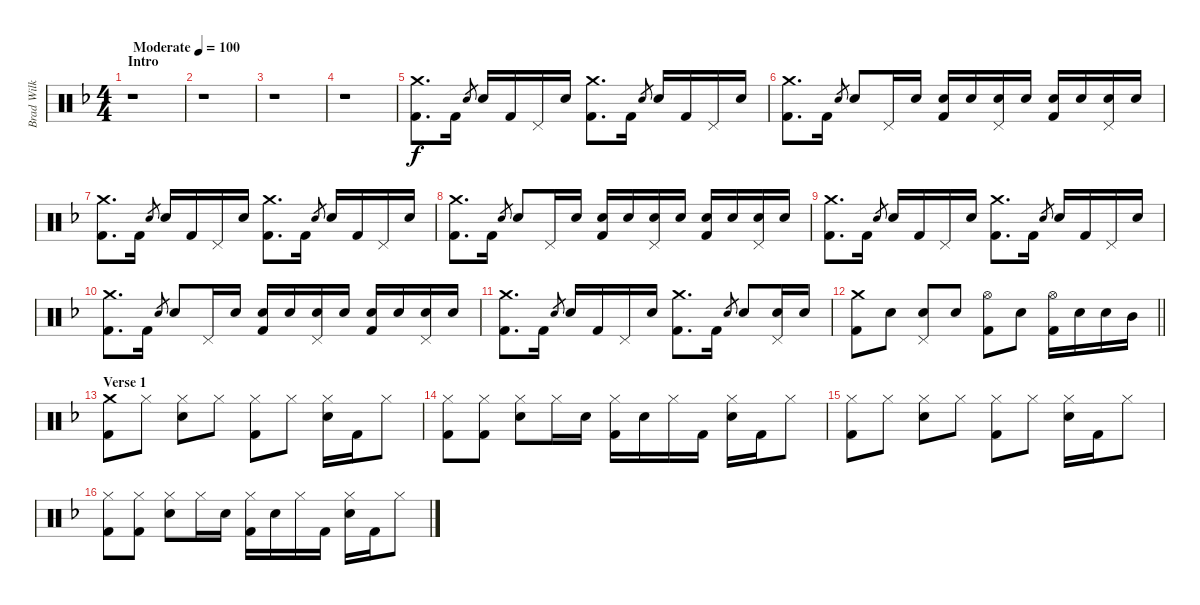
\track ("Brad Wilk" "Brad Wilk") {instrument percussion}
\staff {score}
\articulation defaults
\ts (4 4)
\section ("" "Intro")
\tempo (100 "Moderate")
\clef neutral
\ks f
r.1{dy f} |
r.1 |
r.1 |
r.1 |
("Crash medium (hit)" "Kick (hit) 2").8{d} "Kick (hit) 2".16 "Electric Snare (hit)".8{gr} "Electric Snare (hit)".16 "Kick (hit) 2".16 "Pedal Hi-Hat (hit)".16 "Electric Snare (hit)".16 ("Crash medium (hit)" "Kick (hit) 2").8{d} "Kick (hit) 2".16 "Electric Snare (hit)".8{gr} "Electric Snare (hit)".16 "Kick (hit) 2".16 "Pedal Hi-Hat (hit)".16 "Electric Snare (hit)".16 |
("Crash medium (hit)" "Kick (hit) 2").8{d} "Kick (hit) 2".16 "Electric Snare (hit)".8{gr} "Electric Snare (hit)".8 "Pedal Hi-Hat (hit)".16 "Electric Snare (hit)".16 ("Electric Snare (hit)" "Kick (hit) 2").16 "Electric Snare (hit)".16 ("Pedal Hi-Hat (hit)" "Electric Snare (hit)").16 "Electric Snare (hit)".16 ("Electric Snare (hit)" "Kick (hit) 2").16 "Electric Snare (hit)".16 ("Pedal Hi-Hat (hit)" "Electric Snare (hit)").16 "Electric Snare (hit)".16 |
("Crash medium (hit)" "Kick (hit) 2").8{d} "Kick (hit) 2".16 "Electric Snare (hit)".8{gr} "Electric Snare (hit)".16 "Kick (hit) 2".16 "Pedal Hi-Hat (hit)".16 "Electric Snare (hit)".16 ("Crash medium (hit)" "Kick (hit) 2").8{d} "Kick (hit) 2".16 "Electric Snare (hit)".8{gr} "Electric Snare (hit)".16 "Kick (hit) 2".16 "Pedal Hi-Hat (hit)".16 "Electric Snare (hit)".16 |
("Crash medium (hit)" "Kick (hit) 2").8{d} "Kick (hit) 2".16 "Electric Snare (hit)".8{gr} "Electric Snare (hit)".8 "Pedal Hi-Hat (hit)".16 "Electric Snare (hit)".16 ("Electric Snare (hit)" "Kick (hit) 2").16 "Electric Snare (hit)".16 ("Pedal Hi-Hat (hit)" "Electric Snare (hit)").16 "Electric Snare (hit)".16 ("Electric Snare (hit)" "Kick (hit) 2").16 "Electric Snare (hit)".16 ("Pedal Hi-Hat (hit)" "Electric Snare (hit)").16 "Electric Snare (hit)".16 |
("Crash medium (hit)" "Kick (hit) 2").8{d} "Kick (hit) 2".16 "Electric Snare (hit)".8{gr} "Electric Snare (hit)".16 "Kick (hit) 2".16 "Pedal Hi-Hat (hit)".16 "Electric Snare (hit)".16 ("Crash medium (hit)" "Kick (hit) 2").8{d} "Kick (hit) 2".16 "Electric Snare (hit)".8{gr} "Electric Snare (hit)".16 "Kick (hit) 2".16 "Pedal Hi-Hat (hit)".16 "Electric Snare (hit)".16 |
("Crash medium (hit)" "Kick (hit) 2").8{d} "Kick (hit) 2".16 "Electric Snare (hit)".8{gr} "Electric Snare (hit)".8 "Pedal Hi-Hat (hit)".16 "Electric Snare (hit)".16 ("Electric Snare (hit)" "Kick (hit) 2").16 "Electric Snare (hit)".16 ("Pedal Hi-Hat (hit)" "Electric Snare (hit)").16 "Electric Snare (hit)".16 ("Electric Snare (hit)" "Kick (hit) 2").16 "Electric Snare (hit)".16 ("Pedal Hi-Hat (hit)" "Electric Snare (hit)").16 "Electric Snare (hit)".16 |
("Crash medium (hit)" "Kick (hit) 2").8{d} "Kick (hit) 2".16 "Electric Snare (hit)".8{gr} "Electric Snare (hit)".16 "Kick (hit) 2".16 "Pedal Hi-Hat (hit)".16 "Electric Snare (hit)".16 ("Crash medium (hit)" "Kick (hit) 2").8{d} "Kick (hit) 2".16 "Electric Snare (hit)".8{gr} "Electric Snare (hit)".8 ("Pedal Hi-Hat (hit)" "Electric Snare (hit)").16 "Electric Snare (hit)".16 |
\barLineRight lightlight
("Crash medium (hit)" "Kick (hit) 2").8 "Electric Snare (hit)".8 ("Pedal Hi-Hat (hit)" "Electric Snare (hit)").8 "Electric Snare (hit)".8 ("Hi-Hat (open)" "Kick (hit) 2").8 "Electric Snare (hit)".8 ("Hi-Hat (open)" "Kick (hit) 2").16 "Electric Snare (hit)".16 "Electric Snare (hit)".16 "Mid Tom (hit)".16 |
\section ("" "Verse 1")
("Crash medium (hit)" "Kick (hit) 2").8 "Hi-Hat (closed)".8 ("Hi-Hat (closed)" "Electric Snare (hit)").8 "Hi-Hat (closed)".8 ("Hi-Hat (closed)" "Kick (hit) 2").8 "Hi-Hat (closed)".8 ("Hi-Hat (closed)" "Electric Snare (hit)").16 "Kick (hit) 2".16 "Hi-Hat (closed)".8 |
("Hi-Hat (closed)" "Kick (hit) 2").8 ("Hi-Hat (closed)" "Kick (hit) 2").8 ("Hi-Hat (closed)" "Electric Snare (hit)").8 "Hi-Hat (closed)".16 "Electric Snare (hit)".16 ("Hi-Hat (closed)" "Kick (hit) 2").16 "Electric Snare (hit)".16 "Hi-Hat (closed)".16 "Kick (hit) 2".16 ("Hi-Hat (closed)" "Electric Snare (hit)").16 "Kick (hit) 2".16 "Hi-Hat (closed)".8 |
("Hi-Hat (closed)" "Kick (hit) 2").8 "Hi-Hat (closed)".8 ("Hi-Hat (closed)" "Electric Snare (hit)").8 "Hi-Hat (closed)".8 ("Hi-Hat (closed)" "Kick (hit) 2").8 "Hi-Hat (closed)".8 ("Hi-Hat (closed)" "Electric Snare (hit)").16 "Kick (hit) 2".16 "Hi-Hat (closed)".8 |
("Hi-Hat (closed)" "Kick (hit) 2").8 ("Hi-Hat (closed)" "Kick (hit) 2").8 ("Hi-Hat (closed)" "Electric Snare (hit)").8 "Hi-Hat (closed)".16 "Electric Snare (hit)".16 ("Hi-Hat (closed)" "Kick (hit) 2").16 "Electric Snare (hit)".16 "Hi-Hat (closed)".16 "Kick (hit) 2".16 ("Hi-Hat (closed)" "Electric Snare (hit)").16 "Kick (hit) 2".16 "Hi-Hat (closed)".8
